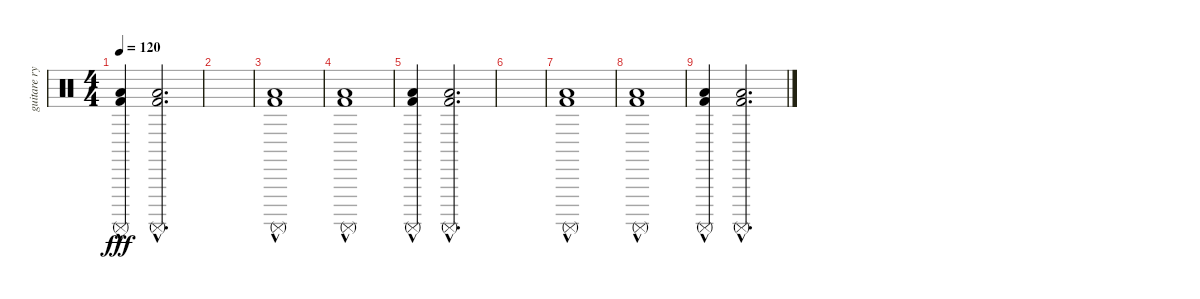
\track ("guitare rythmique PERCUSIONS" "guitare ry") {instrument percussion}
\staff {score}
\articulation defaults
\ts (4 4)
\tempo 120
\clef neutral
\ks c
("Surdo (mute)"{hac} "Low Floor Tom (hit)"{hac} "Kick (hit) 2"{hac}).4{dy fff} ("Surdo (mute)"{hac} "Low Floor Tom (hit)"{hac} "Kick (hit) 2"{hac}).2{d} |
|
("Surdo (mute)"{hac} "Low Floor Tom (hit)"{hac} "Kick (hit) 2"{hac}).1 |
("Surdo (mute)"{hac} "Low Floor Tom (hit)"{hac} "Kick (hit) 2"{hac}).1 |
("Surdo (mute)"{hac} "Low Floor Tom (hit)"{hac} "Kick (hit) 2"{hac}).4 ("Surdo (mute)"{hac} "Low Floor Tom (hit)"{hac} "Kick (hit) 2"{hac}).2{d} |
|
("Surdo (mute)"{hac} "Low Floor Tom (hit)"{hac} "Kick (hit) 2"{hac}).1 |
("Surdo (mute)"{hac} "Low Floor Tom (hit)"{hac} "Kick (hit) 2"{hac}).1 |
("Surdo (mute)"{hac} "Low Floor Tom (hit)"{hac} "Kick (hit) 2"{hac}).4 ("Surdo (mute)"{hac} "Low Floor Tom (hit)"{hac} "Kick (hit) 2"{hac}).2{d}
